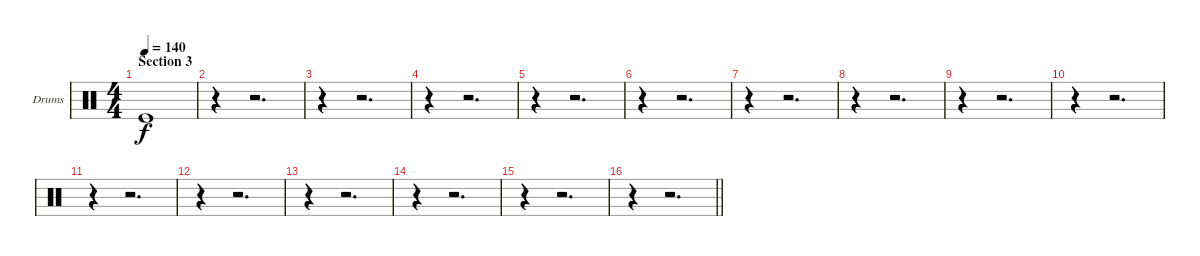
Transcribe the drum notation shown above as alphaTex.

\bracketExtendMode groupsimilarinstruments
\firstSystemTrackNameOrientation horizontal
\otherSystemsTrackNameOrientation horizontal
\track ("Drumkit" "Drums") {instrument percussion}
\staff {score}
\articulation defaults
\ts (4 4)
\section ("" "Section 3")
\tempo 140
\clef neutral
\ks c "Kick (hit)".1{dy f}
|
r.4 r.2{d} |
r.4 r.2{d} |
r.4 r.2{d} |
r.4 r.2{d} |
r.4 r.2{d} |
r.4 r.2{d} |
r.4 r.2{d} |
r.4 r.2{d} |
r.4 r.2{d} |
r.4 r.2{d} |
r.4 r.2{d} |
r.4 r.2{d} |
r.4 r.2{d} |
r.4 r.2{d} |
\barLineRight lightlight
r.4 r.2{d}
